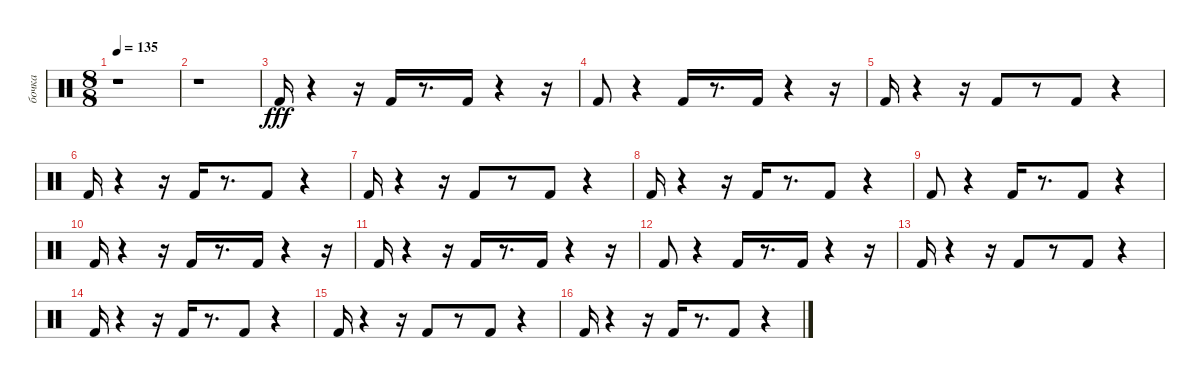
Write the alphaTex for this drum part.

\track ("бочка" "бочка") {instrument percussion}
\staff {score}
\articulation defaults
\ts (8 8)
\tempo 135
\clef neutral
\ks c
r.1{dy fff} |
r.1 |
"Kick (hit) 2".16 r.4 r.16 "Kick (hit) 2".16 r.8{d} "Kick (hit) 2".16 r.4 r.16 |
"Kick (hit) 2".8 r.4 "Kick (hit) 2".16 r.8{d} "Kick (hit) 2".16 r.4 r.16 |
"Kick (hit) 2".16 r.4 r.16 "Kick (hit) 2".8 r.8 "Kick (hit) 2".8 r.4 |
"Kick (hit) 2".16 r.4 r.16 "Kick (hit) 2".16 r.8{d} "Kick (hit) 2".8 r.4 |
"Kick (hit) 2".16 r.4 r.16 "Kick (hit) 2".8 r.8 "Kick (hit) 2".8 r.4 |
"Kick (hit) 2".16 r.4 r.16 "Kick (hit) 2".16 r.8{d} "Kick (hit) 2".8 r.4 |
"Kick (hit) 2".8 r.4 "Kick (hit) 2".16 r.8{d} "Kick (hit) 2".8 r.4 |
"Kick (hit) 2".16 r.4 r.16 "Kick (hit) 2".16 r.8{d} "Kick (hit) 2".16 r.4 r.16 |
"Kick (hit) 2".16 r.4 r.16 "Kick (hit) 2".16 r.8{d} "Kick (hit) 2".16 r.4 r.16 |
"Kick (hit) 2".8 r.4 "Kick (hit) 2".16 r.8{d} "Kick (hit) 2".16 r.4 r.16 |
"Kick (hit) 2".16 r.4 r.16 "Kick (hit) 2".8 r.8 "Kick (hit) 2".8 r.4 |
"Kick (hit) 2".16 r.4 r.16 "Kick (hit) 2".16 r.8{d} "Kick (hit) 2".8 r.4 |
"Kick (hit) 2".16 r.4 r.16 "Kick (hit) 2".8 r.8 "Kick (hit) 2".8 r.4 |
"Kick (hit) 2".16 r.4 r.16 "Kick (hit) 2".16 r.8{d} "Kick (hit) 2".8 r.4
